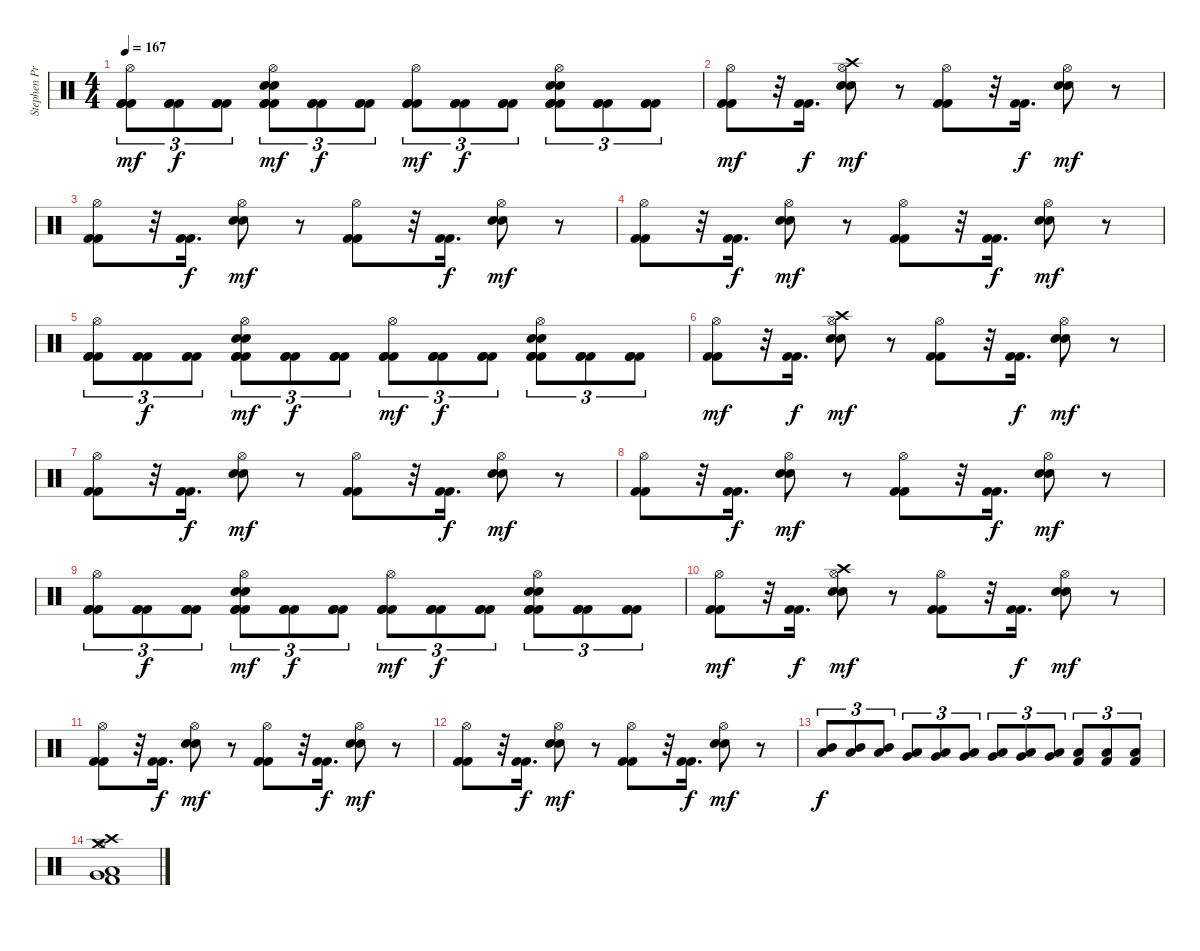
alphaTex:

\track ("Stephen Priestly  (Drums)" "Stephen Pr") {instrument percussion}
\staff {score}
\articulation defaults
\ts (4 4)
\tempo 167
\clef neutral
\ks c
("Hi-Hat (open)" "Kick (hit) 2" "Kick (hit) 2" "Kick (hit) 2").8{tu (3 2) dy mf} ("Kick (hit) 2" "Kick (hit) 2" "Kick (hit) 2").8{tu (3 2) dy f} ("Kick (hit) 2" "Kick (hit) 2" "Kick (hit) 2").8{tu (3 2)} ("Electric Snare (hit)" "Hi-Hat (open)" "Electric Snare (hit)" "Kick (hit) 2" "Kick (hit) 2" "Kick (hit) 2").8{tu (3 2) dy mf} ("Kick (hit) 2" "Kick (hit) 2" "Kick (hit) 2").8{tu (3 2) dy f} ("Kick (hit) 2" "Kick (hit) 2" "Kick (hit) 2").8{tu (3 2)} ("Hi-Hat (open)" "Kick (hit) 2" "Kick (hit) 2" "Kick (hit) 2").8{tu (3 2) dy mf} ("Kick (hit) 2" "Kick (hit) 2" "Kick (hit) 2").8{tu (3 2) dy f} ("Kick (hit) 2" "Kick (hit) 2" "Kick (hit) 2").8{tu (3 2)} ("Electric Snare (hit)" "Hi-Hat (open)" "Electric Snare (hit)" "Kick (hit) 2" "Kick (hit) 2" "Kick (hit) 2").8{tu (3 2)} ("Kick (hit) 2" "Kick (hit) 2" "Kick (hit) 2").8{tu (3 2)} ("Kick (hit) 2" "Kick (hit) 2" "Kick (hit) 2").8{tu (3 2)} |
("Hi-Hat (open)" "Kick (hit) 2" "Kick (hit) 2").8{dy mf} r.32 ("Kick (hit) 2" "Kick (hit) 2").16{d dy f} ("Crash high (hit)" "Hi-Hat (open)" "Electric Snare (hit)" "Electric Snare (hit)").8{dy mf} r.8 ("Hi-Hat (open)" "Kick (hit) 2" "Kick (hit) 2").8 r.32 ("Kick (hit) 2" "Kick (hit) 2").16{d dy f} ("Hi-Hat (open)" "Electric Snare (hit)" "Electric Snare (hit)").8{dy mf} r.8 |
("Hi-Hat (open)" "Kick (hit) 2" "Kick (hit) 2").8 r.32 ("Kick (hit) 2" "Kick (hit) 2").16{d dy f} ("Hi-Hat (open)" "Electric Snare (hit)" "Electric Snare (hit)").8{dy mf} r.8 ("Hi-Hat (open)" "Kick (hit) 2" "Kick (hit) 2").8 r.32 ("Kick (hit) 2" "Kick (hit) 2").16{d dy f} ("Hi-Hat (open)" "Electric Snare (hit)" "Electric Snare (hit)").8{dy mf} r.8 |
("Hi-Hat (open)" "Kick (hit) 2" "Kick (hit) 2").8 r.32 ("Kick (hit) 2" "Kick (hit) 2").16{d dy f} ("Hi-Hat (open)" "Electric Snare (hit)" "Electric Snare (hit)").8{dy mf} r.8 ("Hi-Hat (open)" "Kick (hit) 2" "Kick (hit) 2").8 r.32 ("Kick (hit) 2" "Kick (hit) 2").16{d dy f} ("Hi-Hat (open)" "Electric Snare (hit)" "Electric Snare (hit)").8{dy mf} r.8 |
("Hi-Hat (open)" "Kick (hit) 2" "Kick (hit) 2" "Kick (hit) 2").8{tu (3 2)} ("Kick (hit) 2" "Kick (hit) 2" "Kick (hit) 2").8{tu (3 2) dy f} ("Kick (hit) 2" "Kick (hit) 2" "Kick (hit) 2").8{tu (3 2)} ("Electric Snare (hit)" "Hi-Hat (open)" "Electric Snare (hit)" "Kick (hit) 2" "Kick (hit) 2" "Kick (hit) 2").8{tu (3 2) dy mf} ("Kick (hit) 2" "Kick (hit) 2" "Kick (hit) 2").8{tu (3 2) dy f} ("Kick (hit) 2" "Kick (hit) 2" "Kick (hit) 2").8{tu (3 2)} ("Hi-Hat (open)" "Kick (hit) 2" "Kick (hit) 2" "Kick (hit) 2").8{tu (3 2) dy mf} ("Kick (hit) 2" "Kick (hit) 2" "Kick (hit) 2").8{tu (3 2) dy f} ("Kick (hit) 2" "Kick (hit) 2" "Kick (hit) 2").8{tu (3 2)} ("Electric Snare (hit)" "Hi-Hat (open)" "Electric Snare (hit)" "Kick (hit) 2" "Kick (hit) 2" "Kick (hit) 2").8{tu (3 2)} ("Kick (hit) 2" "Kick (hit) 2" "Kick (hit) 2").8{tu (3 2)} ("Kick (hit) 2" "Kick (hit) 2" "Kick (hit) 2").8{tu (3 2)} |
("Hi-Hat (open)" "Kick (hit) 2" "Kick (hit) 2").8{dy mf} r.32 ("Kick (hit) 2" "Kick (hit) 2").16{d dy f} ("Crash high (hit)" "Hi-Hat (open)" "Electric Snare (hit)" "Electric Snare (hit)").8{dy mf} r.8 ("Hi-Hat (open)" "Kick (hit) 2" "Kick (hit) 2").8 r.32 ("Kick (hit) 2" "Kick (hit) 2").16{d dy f} ("Hi-Hat (open)" "Electric Snare (hit)" "Electric Snare (hit)").8{dy mf} r.8 |
("Hi-Hat (open)" "Kick (hit) 2" "Kick (hit) 2").8 r.32 ("Kick (hit) 2" "Kick (hit) 2").16{d dy f} ("Hi-Hat (open)" "Electric Snare (hit)" "Electric Snare (hit)").8{dy mf} r.8 ("Hi-Hat (open)" "Kick (hit) 2" "Kick (hit) 2").8 r.32 ("Kick (hit) 2" "Kick (hit) 2").16{d dy f} ("Hi-Hat (open)" "Electric Snare (hit)" "Electric Snare (hit)").8{dy mf} r.8 |
("Hi-Hat (open)" "Kick (hit) 2" "Kick (hit) 2").8 r.32 ("Kick (hit) 2" "Kick (hit) 2").16{d dy f} ("Hi-Hat (open)" "Electric Snare (hit)" "Electric Snare (hit)").8{dy mf} r.8 ("Hi-Hat (open)" "Kick (hit) 2" "Kick (hit) 2").8 r.32 ("Kick (hit) 2" "Kick (hit) 2").16{d dy f} ("Hi-Hat (open)" "Electric Snare (hit)" "Electric Snare (hit)").8{dy mf} r.8 |
("Hi-Hat (open)" "Kick (hit) 2" "Kick (hit) 2" "Kick (hit) 2").8{tu (3 2)} ("Kick (hit) 2" "Kick (hit) 2" "Kick (hit) 2").8{tu (3 2) dy f} ("Kick (hit) 2" "Kick (hit) 2" "Kick (hit) 2").8{tu (3 2)} ("Electric Snare (hit)" "Hi-Hat (open)" "Electric Snare (hit)" "Kick (hit) 2" "Kick (hit) 2" "Kick (hit) 2").8{tu (3 2) dy mf} ("Kick (hit) 2" "Kick (hit) 2" "Kick (hit) 2").8{tu (3 2) dy f} ("Kick (hit) 2" "Kick (hit) 2" "Kick (hit) 2").8{tu (3 2)} ("Hi-Hat (open)" "Kick (hit) 2" "Kick (hit) 2" "Kick (hit) 2").8{tu (3 2) dy mf} ("Kick (hit) 2" "Kick (hit) 2" "Kick (hit) 2").8{tu (3 2) dy f} ("Kick (hit) 2" "Kick (hit) 2" "Kick (hit) 2").8{tu (3 2)} ("Electric Snare (hit)" "Hi-Hat (open)" "Electric Snare (hit)" "Kick (hit) 2" "Kick (hit) 2" "Kick (hit) 2").8{tu (3 2)} ("Kick (hit) 2" "Kick (hit) 2" "Kick (hit) 2").8{tu (3 2)} ("Kick (hit) 2" "Kick (hit) 2" "Kick (hit) 2").8{tu (3 2)} |
("Hi-Hat (open)" "Kick (hit) 2" "Kick (hit) 2").8{dy mf} r.32 ("Kick (hit) 2" "Kick (hit) 2").16{d dy f} ("Crash high (hit)" "Hi-Hat (open)" "Electric Snare (hit)" "Electric Snare (hit)").8{dy mf} r.8 ("Hi-Hat (open)" "Kick (hit) 2" "Kick (hit) 2").8 r.32 ("Kick (hit) 2" "Kick (hit) 2").16{d dy f} ("Hi-Hat (open)" "Electric Snare (hit)" "Electric Snare (hit)").8{dy mf} r.8 |
("Hi-Hat (open)" "Kick (hit) 2" "Kick (hit) 2").8 r.32 ("Kick (hit) 2" "Kick (hit) 2").16{d dy f} ("Hi-Hat (open)" "Electric Snare (hit)" "Electric Snare (hit)").8{dy mf} r.8 ("Hi-Hat (open)" "Kick (hit) 2" "Kick (hit) 2").8 r.32 ("Kick (hit) 2" "Kick (hit) 2").16{d dy f} ("Hi-Hat (open)" "Electric Snare (hit)" "Electric Snare (hit)").8{dy mf} r.8 |
("Hi-Hat (open)" "Kick (hit) 2" "Kick (hit) 2").8 r.32 ("Kick (hit) 2" "Kick (hit) 2").16{d dy f} ("Hi-Hat (open)" "Electric Snare (hit)" "Electric Snare (hit)").8{dy mf} r.8 ("Hi-Hat (open)" "Kick (hit) 2" "Kick (hit) 2").8 r.32 ("Kick (hit) 2" "Kick (hit) 2").16{d dy f} ("Hi-Hat (open)" "Electric Snare (hit)" "Electric Snare (hit)").8{dy mf} r.8 |
("Mid Tom (hit)" "Low Tom (hit)").8{tu (3 2) dy f} ("Mid Tom (hit)" "Low Tom (hit)").8{tu (3 2)} ("Mid Tom (hit)" "Low Tom (hit)").8{tu (3 2)} ("Low Tom (hit)" "Very Low Tom (hit)").8{tu (3 2)} ("Low Tom (hit)" "Very Low Tom (hit)").8{tu (3 2)} ("Low Tom (hit)" "Very Low Tom (hit)").8{tu (3 2)} ("Very Low Tom (hit)" "Low Floor Tom (hit)").8{tu (3 2)} ("Very Low Tom (hit)" "Low Floor Tom (hit)").8{tu (3 2)} ("Very Low Tom (hit)" "Low Floor Tom (hit)").8{tu (3 2)} ("Low Floor Tom (hit)" "Kick (hit) 2").8{tu (3 2)} ("Low Floor Tom (hit)" "Kick (hit) 2").8{tu (3 2)} ("Low Floor Tom (hit)" "Kick (hit) 2").8{tu (3 2)} |
("Hi-Hat (open)" "Very Low Tom (hit)" "Low Floor Tom (hit)" "Crash medium (hit)" "Kick (hit) 2" "Crash high (hit)").1
